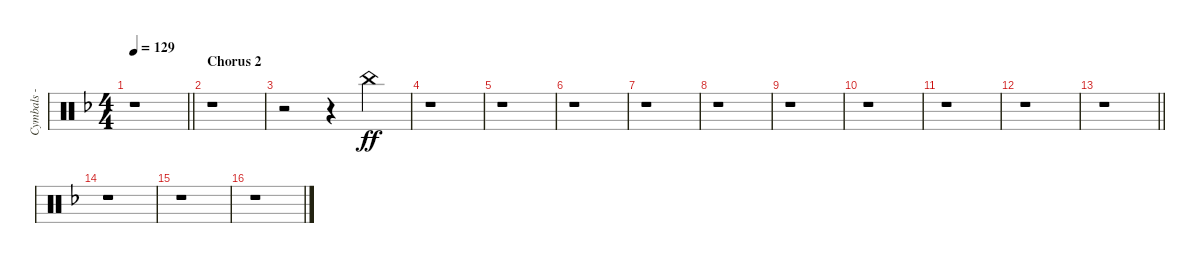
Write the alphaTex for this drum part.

\track ("Cymbals - china" "Cymbals - ") {instrument percussion}
\staff {score}
\articulation defaults
\ts (4 4)
\tempo 129
\clef neutral
\barLineRight lightlight
\ks dminor
r.1{dy ff} |
\section ("" "Chorus 2")
r.1 |
r.2 r.4{beam merge} "China (hit)".4 |
r.1 |
r.1 |
r.1 |
r.1 |
r.1 |
r.1 |
r.1 |
r.1 |
r.1 |
\barLineRight lightlight
r.1 |
r.1 |
r.1 |
r.1
